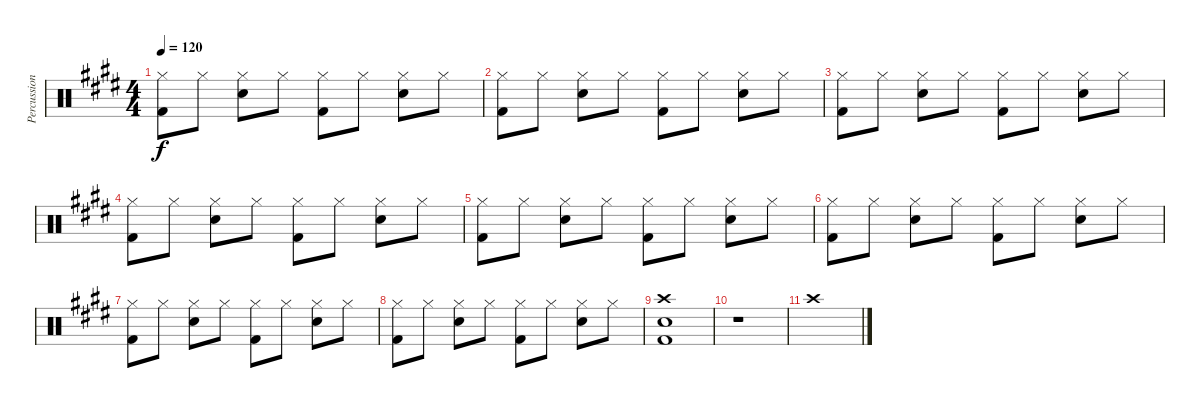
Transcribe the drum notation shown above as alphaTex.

\track ("Percussion" "Percussion") {instrument percussion}
\staff {score}
\articulation defaults
\ts (4 4)
\tempo 120
\clef neutral
\ks e
("Hi-Hat (closed)" "Kick (hit) 2").8{dy f} "Hi-Hat (closed)".8 ("Hi-Hat (closed)" "Snare (hit) 2").8 "Hi-Hat (closed)".8 ("Hi-Hat (closed)" "Kick (hit) 2").8 "Hi-Hat (closed)".8 ("Hi-Hat (closed)" "Snare (hit) 2").8 "Hi-Hat (closed)".8 |
("Hi-Hat (closed)" "Kick (hit) 2").8 "Hi-Hat (closed)".8 ("Hi-Hat (closed)" "Snare (hit) 2").8 "Hi-Hat (closed)".8 ("Hi-Hat (closed)" "Kick (hit) 2").8 "Hi-Hat (closed)".8 ("Hi-Hat (closed)" "Snare (hit) 2").8 "Hi-Hat (closed)".8 |
("Hi-Hat (closed)" "Kick (hit) 2").8 "Hi-Hat (closed)".8 ("Hi-Hat (closed)" "Snare (hit) 2").8 "Hi-Hat (closed)".8 ("Hi-Hat (closed)" "Kick (hit) 2").8 "Hi-Hat (closed)".8 ("Hi-Hat (closed)" "Snare (hit) 2").8 "Hi-Hat (closed)".8 |
("Hi-Hat (closed)" "Kick (hit) 2").8 "Hi-Hat (closed)".8 ("Hi-Hat (closed)" "Snare (hit) 2").8 "Hi-Hat (closed)".8 ("Hi-Hat (closed)" "Kick (hit) 2").8 "Hi-Hat (closed)".8 ("Hi-Hat (closed)" "Snare (hit) 2").8 "Hi-Hat (closed)".8 |
("Hi-Hat (closed)" "Kick (hit) 2").8 "Hi-Hat (closed)".8 ("Hi-Hat (closed)" "Snare (hit) 2").8 "Hi-Hat (closed)".8 ("Hi-Hat (closed)" "Kick (hit) 2").8 "Hi-Hat (closed)".8 ("Hi-Hat (closed)" "Snare (hit) 2").8 "Hi-Hat (closed)".8 |
("Hi-Hat (closed)" "Kick (hit) 2").8 "Hi-Hat (closed)".8 ("Hi-Hat (closed)" "Snare (hit) 2").8 "Hi-Hat (closed)".8 ("Hi-Hat (closed)" "Kick (hit) 2").8 "Hi-Hat (closed)".8 ("Hi-Hat (closed)" "Snare (hit) 2").8 "Hi-Hat (closed)".8 |
("Hi-Hat (closed)" "Kick (hit) 2").8 "Hi-Hat (closed)".8 ("Hi-Hat (closed)" "Snare (hit) 2").8 "Hi-Hat (closed)".8 ("Hi-Hat (closed)" "Kick (hit) 2").8 "Hi-Hat (closed)".8 ("Hi-Hat (closed)" "Snare (hit) 2").8 "Hi-Hat (closed)".8 |
("Hi-Hat (closed)" "Kick (hit) 2").8 "Hi-Hat (closed)".8 ("Hi-Hat (closed)" "Snare (hit) 2").8 "Hi-Hat (closed)".8 ("Hi-Hat (closed)" "Kick (hit) 2").8 "Hi-Hat (closed)".8 ("Hi-Hat (closed)" "Snare (hit) 2").8 "Hi-Hat (closed)".8 |
("Crash high (hit)" "Snare (hit) 2" "Kick (hit) 2").1 |
r.1 |
"Crash high (hit)".1
